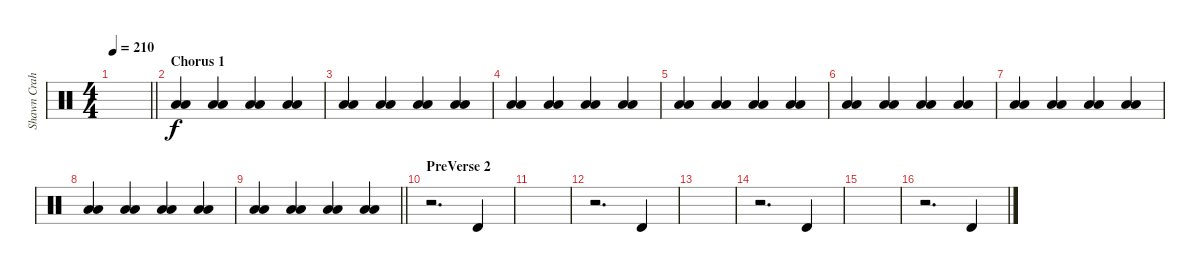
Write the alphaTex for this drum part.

\track ("Shawn Crahan" "Shawn Crah") {instrument percussion}
\staff {score}
\articulation defaults
\ts (4 4)
\tempo 210
\clef neutral
\barLineRight lightlight
\ks c
|
\section ("" "Chorus 1")
("Low Floor Tom (hit)" "Low Floor Tom (hit)").4 ("Low Floor Tom (hit)" "Low Floor Tom (hit)").4 ("Low Floor Tom (hit)" "Low Floor Tom (hit)").4 ("Low Floor Tom (hit)" "Low Floor Tom (hit)").4 |
("Low Floor Tom (hit)" "Low Floor Tom (hit)").4 ("Low Floor Tom (hit)" "Low Floor Tom (hit)").4 ("Low Floor Tom (hit)" "Low Floor Tom (hit)").4 ("Low Floor Tom (hit)" "Low Floor Tom (hit)").4 |
("Low Floor Tom (hit)" "Low Floor Tom (hit)").4 ("Low Floor Tom (hit)" "Low Floor Tom (hit)").4 ("Low Floor Tom (hit)" "Low Floor Tom (hit)").4 ("Low Floor Tom (hit)" "Low Floor Tom (hit)").4 |
("Low Floor Tom (hit)" "Low Floor Tom (hit)").4 ("Low Floor Tom (hit)" "Low Floor Tom (hit)").4 ("Low Floor Tom (hit)" "Low Floor Tom (hit)").4 ("Low Floor Tom (hit)" "Low Floor Tom (hit)").4 |
("Low Floor Tom (hit)" "Low Floor Tom (hit)").4 ("Low Floor Tom (hit)" "Low Floor Tom (hit)").4 ("Low Floor Tom (hit)" "Low Floor Tom (hit)").4 ("Low Floor Tom (hit)" "Low Floor Tom (hit)").4 |
("Low Floor Tom (hit)" "Low Floor Tom (hit)").4 ("Low Floor Tom (hit)" "Low Floor Tom (hit)").4 ("Low Floor Tom (hit)" "Low Floor Tom (hit)").4 ("Low Floor Tom (hit)" "Low Floor Tom (hit)").4 |
("Low Floor Tom (hit)" "Low Floor Tom (hit)").4 ("Low Floor Tom (hit)" "Low Floor Tom (hit)").4 ("Low Floor Tom (hit)" "Low Floor Tom (hit)").4 ("Low Floor Tom (hit)" "Low Floor Tom (hit)").4 |
\barLineRight lightlight
("Low Floor Tom (hit)" "Low Floor Tom (hit)").4 ("Low Floor Tom (hit)" "Low Floor Tom (hit)").4 ("Low Floor Tom (hit)" "Low Floor Tom (hit)").4 ("Low Floor Tom (hit)" "Low Floor Tom (hit)").4 |
\section ("" "PreVerse 2")
r.2{d} "Timbale high (hit)".4 |
|
r.2{d} "Timbale high (hit)".4 |
|
r.2{d} "Timbale high (hit)".4 |
|
r.2{d} "Timbale high (hit)".4
